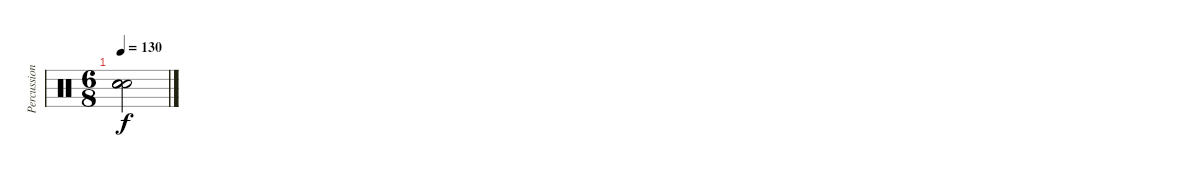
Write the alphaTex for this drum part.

\track ("Percussion" "Percussion") {instrument percussion}
\staff {score}
\articulation defaults
\ts (6 8)
\tempo 130
\clef neutral
\ks c
("Snare (hit)"{t} "Snare (hit)"{t} "Snare (hit)"{t} "Snare (hit)").2{dy f}
